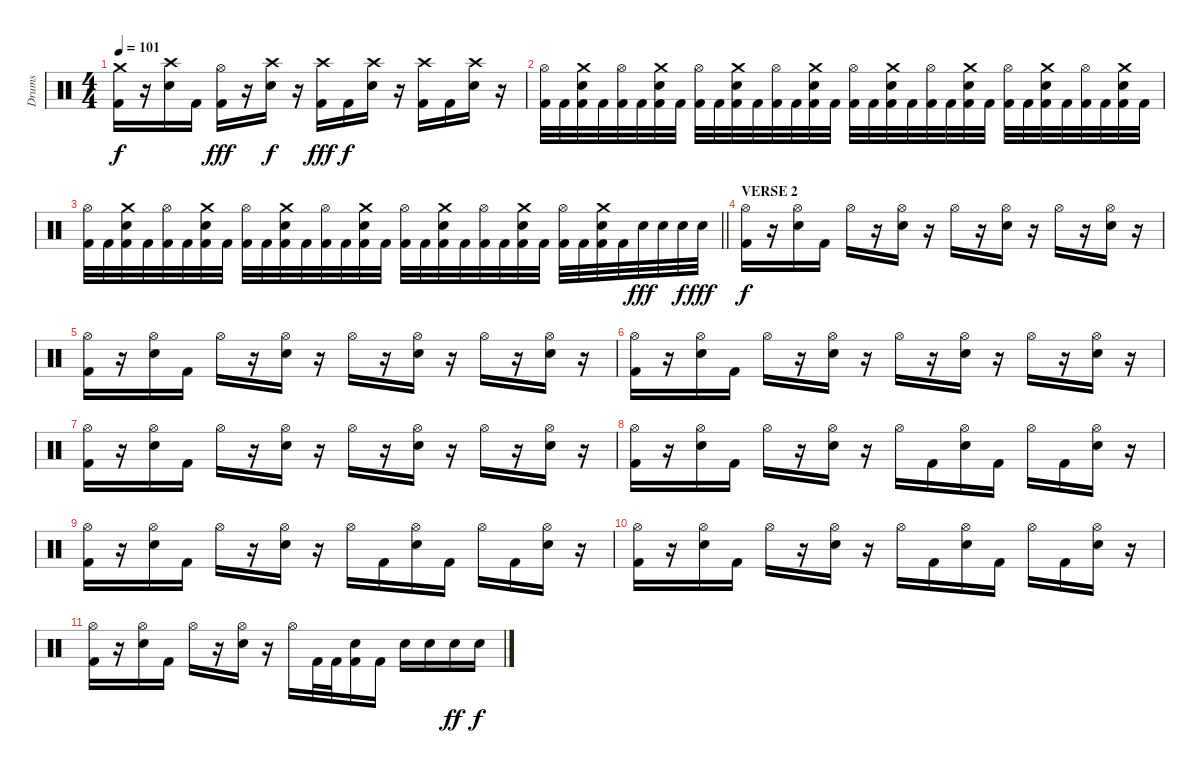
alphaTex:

\track ("Drums" "Drums") {instrument percussion}
\staff {score}
\articulation defaults
\ts (4 4)
\tempo 101
\clef neutral
\ks c
("Crash medium (hit)" "Kick (hit) 2").16{dy f} r.16 ("Crash high (hit)" "Electric Snare (hit)").16 "Kick (hit) 2".16 ("Hi-Hat (open)" "Kick (hit) 2").16{dy fff} r.16 ("Crash high (hit)" "Electric Snare (hit)").16{dy f} r.16 ("Crash high (hit)" "Kick (hit) 2").16{dy fff} "Kick (hit) 2".16{dy f} ("Crash high (hit)" "Electric Snare (hit)").16 r.16 ("Crash high (hit)" "Kick (hit) 2").16 "Kick (hit) 2".16 ("Crash high (hit)" "Electric Snare (hit)").16 r.16 |
("Hi-Hat (open)" "Kick (hit) 2").32 "Kick (hit) 2".32 ("Crash medium (hit)" "Electric Snare (hit)" "Kick (hit) 2").32 "Kick (hit) 2".32 ("Hi-Hat (open)" "Kick (hit) 2").32 "Kick (hit) 2".32 ("Crash medium (hit)" "Electric Snare (hit)" "Kick (hit) 2").32 "Kick (hit) 2".32 ("Hi-Hat (open)" "Kick (hit) 2").32 "Kick (hit) 2".32 ("Crash medium (hit)" "Electric Snare (hit)" "Kick (hit) 2").32 "Kick (hit) 2".32 ("Hi-Hat (open)" "Kick (hit) 2").32 "Kick (hit) 2".32 ("Crash medium (hit)" "Electric Snare (hit)" "Kick (hit) 2").32 "Kick (hit) 2".32 ("Hi-Hat (open)" "Kick (hit) 2").32 "Kick (hit) 2".32 ("Crash medium (hit)" "Electric Snare (hit)" "Kick (hit) 2").32 "Kick (hit) 2".32 ("Hi-Hat (open)" "Kick (hit) 2").32 "Kick (hit) 2".32 ("Crash medium (hit)" "Electric Snare (hit)" "Kick (hit) 2").32 "Kick (hit) 2".32 ("Hi-Hat (open)" "Kick (hit) 2").32 "Kick (hit) 2".32 ("Crash medium (hit)" "Electric Snare (hit)" "Kick (hit) 2").32 "Kick (hit) 2".32 ("Hi-Hat (open)" "Kick (hit) 2").32 "Kick (hit) 2".32 ("Crash medium (hit)" "Electric Snare (hit)" "Kick (hit) 2").32 "Kick (hit) 2".32 |
\barLineRight lightlight
("Hi-Hat (open)" "Kick (hit) 2").32 "Kick (hit) 2".32 ("Crash medium (hit)" "Electric Snare (hit)" "Kick (hit) 2").32 "Kick (hit) 2".32 ("Hi-Hat (open)" "Kick (hit) 2").32 "Kick (hit) 2".32 ("Crash medium (hit)" "Electric Snare (hit)" "Kick (hit) 2").32 "Kick (hit) 2".32 ("Hi-Hat (open)" "Kick (hit) 2").32 "Kick (hit) 2".32 ("Crash medium (hit)" "Electric Snare (hit)" "Kick (hit) 2").32 "Kick (hit) 2".32 ("Hi-Hat (open)" "Kick (hit) 2").32 "Kick (hit) 2".32 ("Crash medium (hit)" "Electric Snare (hit)" "Kick (hit) 2").32 "Kick (hit) 2".32 ("Hi-Hat (open)" "Kick (hit) 2").32 "Kick (hit) 2".32 ("Crash medium (hit)" "Electric Snare (hit)" "Kick (hit) 2").32 "Kick (hit) 2".32 ("Hi-Hat (open)" "Kick (hit) 2").32 "Kick (hit) 2".32 ("Crash medium (hit)" "Electric Snare (hit)" "Kick (hit) 2").32 "Kick (hit) 2".32 ("Hi-Hat (open)" "Kick (hit) 2").32 "Kick (hit) 2".32 ("Crash medium (hit)" "Electric Snare (hit)" "Kick (hit) 2").32 "Kick (hit) 2".32 "Electric Snare (hit)".32{dy fff} "Electric Snare (hit)".32 "Electric Snare (hit)".32{dy f} "Electric Snare (hit)".32{dy fff} |
\section ("" "VERSE 2")
("Hi-Hat (open)" "Kick (hit) 2").16{dy f} r.16 ("Hi-Hat (open)" "Electric Snare (hit)").16 "Kick (hit) 2".16 "Hi-Hat (open)".16 r.16 ("Hi-Hat (open)" "Electric Snare (hit)").16 r.16 "Hi-Hat (open)".16 r.16 ("Hi-Hat (open)" "Electric Snare (hit)").16 r.16 "Hi-Hat (open)".16 r.16 ("Hi-Hat (open)" "Electric Snare (hit)").16 r.16 |
("Hi-Hat (open)" "Kick (hit) 2").16 r.16 ("Hi-Hat (open)" "Electric Snare (hit)").16 "Kick (hit) 2".16 "Hi-Hat (open)".16 r.16 ("Hi-Hat (open)" "Electric Snare (hit)").16 r.16 "Hi-Hat (open)".16 r.16 ("Hi-Hat (open)" "Electric Snare (hit)").16 r.16 "Hi-Hat (open)".16 r.16 ("Hi-Hat (open)" "Electric Snare (hit)").16 r.16 |
("Hi-Hat (open)" "Kick (hit) 2").16 r.16 ("Hi-Hat (open)" "Electric Snare (hit)").16 "Kick (hit) 2".16 "Hi-Hat (open)".16 r.16 ("Hi-Hat (open)" "Electric Snare (hit)").16 r.16 "Hi-Hat (open)".16 r.16 ("Hi-Hat (open)" "Electric Snare (hit)").16 r.16 "Hi-Hat (open)".16 r.16 ("Hi-Hat (open)" "Electric Snare (hit)").16 r.16 |
("Hi-Hat (open)" "Kick (hit) 2").16 r.16 ("Hi-Hat (open)" "Electric Snare (hit)").16 "Kick (hit) 2".16 "Hi-Hat (open)".16 r.16 ("Hi-Hat (open)" "Electric Snare (hit)").16 r.16 "Hi-Hat (open)".16 r.16 ("Hi-Hat (open)" "Electric Snare (hit)").16 r.16 "Hi-Hat (open)".16 r.16 ("Hi-Hat (open)" "Electric Snare (hit)").16 r.16 |
("Hi-Hat (open)" "Kick (hit) 2").16 r.16 ("Hi-Hat (open)" "Electric Snare (hit)").16 "Kick (hit) 2".16 "Hi-Hat (open)".16 r.16 ("Hi-Hat (open)" "Electric Snare (hit)").16 r.16 "Hi-Hat (open)".16 "Kick (hit) 2".16 ("Hi-Hat (open)" "Electric Snare (hit)").16 "Kick (hit) 2".16 "Hi-Hat (open)".16 "Kick (hit) 2".16 ("Hi-Hat (open)" "Electric Snare (hit)").16 r.16 |
("Hi-Hat (open)" "Kick (hit) 2").16 r.16 ("Hi-Hat (open)" "Electric Snare (hit)").16 "Kick (hit) 2".16 "Hi-Hat (open)".16 r.16 ("Hi-Hat (open)" "Electric Snare (hit)").16 r.16 "Hi-Hat (open)".16 "Kick (hit) 2".16 ("Hi-Hat (open)" "Electric Snare (hit)").16 "Kick (hit) 2".16 "Hi-Hat (open)".16 "Kick (hit) 2".16 ("Hi-Hat (open)" "Electric Snare (hit)").16 r.16 |
("Hi-Hat (open)" "Kick (hit) 2").16 r.16 ("Hi-Hat (open)" "Electric Snare (hit)").16 "Kick (hit) 2".16 "Hi-Hat (open)".16 r.16 ("Hi-Hat (open)" "Electric Snare (hit)").16 r.16 "Hi-Hat (open)".16 "Kick (hit) 2".16 ("Hi-Hat (open)" "Electric Snare (hit)").16 "Kick (hit) 2".16 "Hi-Hat (open)".16 "Kick (hit) 2".16 ("Hi-Hat (open)" "Electric Snare (hit)").16 r.16 |
("Hi-Hat (open)" "Kick (hit) 2").16 r.16 ("Hi-Hat (open)" "Electric Snare (hit)").16 "Kick (hit) 2".16 "Hi-Hat (open)".16 r.16 ("Hi-Hat (open)" "Electric Snare (hit)").16 r.16 "Hi-Hat (open)".16 "Kick (hit) 2".32 "Kick (hit) 2".32 ("Electric Snare (hit)" "Kick (hit) 2").16 "Kick (hit) 2".16 "Electric Snare (hit)".16 "Electric Snare (hit)".16 "Electric Snare (hit)".16{dy ff} "Electric Snare (hit)".16{dy f}
